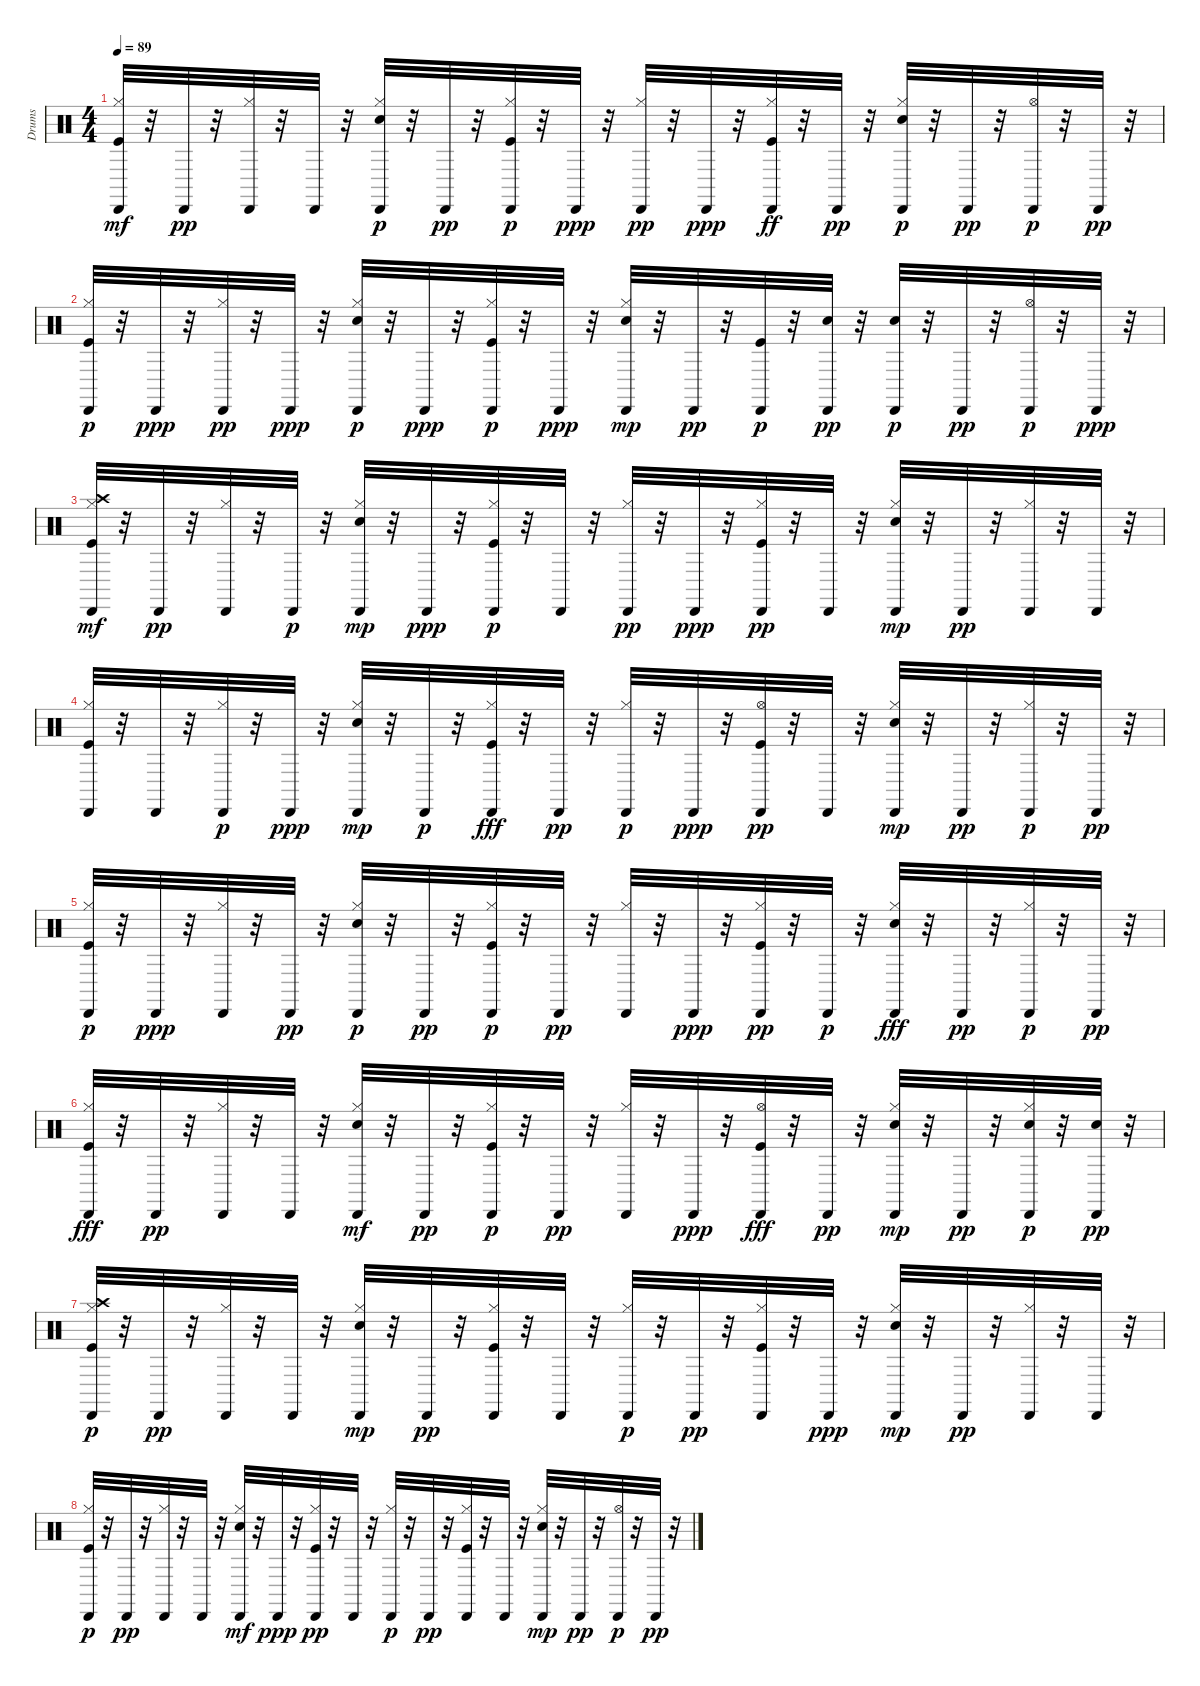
\track ("Drums" "Drums") {instrument percussion}
\staff {score}
\articulation defaults
\ts (4 4)
\tempo 89
\clef neutral
\ks c
("Kick (hit)" "Cabasa (hit)" "Hi-Hat (closed)").32{dy mf} r.32 "Cabasa (hit)".32{dy pp} r.32 ("Hi-Hat (closed)" "Cabasa (hit)").32 r.32 "Cabasa (hit)".32 r.32 ("Electric Snare (hit)" "Hi-Hat (closed)" "Cabasa (hit)").32{dy p} r.32 "Cabasa (hit)".32{dy pp} r.32 ("Kick (hit)" "Hi-Hat (closed)" "Cabasa (hit)").32{dy p} r.32 "Cabasa (hit)".32{dy ppp} r.32 ("Hi-Hat (closed)" "Cabasa (hit)").32{dy pp} r.32 "Cabasa (hit)".32{dy ppp} r.32 ("Cabasa (hit)" "Hi-Hat (closed)" "Kick (hit)").32{dy ff} r.32 "Cabasa (hit)".32{dy pp} r.32 ("Electric Snare (hit)" "Hi-Hat (closed)" "Cabasa (hit)").32{dy p} r.32 "Cabasa (hit)".32{dy pp} r.32 ("Hi-Hat (open)" "Cabasa (hit)").32{dy p} r.32 "Cabasa (hit)".32{dy pp} r.32 |
("Kick (hit)" "Hi-Hat (closed)" "Cabasa (hit)").32{dy p} r.32 "Cabasa (hit)".32{dy ppp} r.32 ("Hi-Hat (closed)" "Cabasa (hit)").32{dy pp} r.32 "Cabasa (hit)".32{dy ppp} r.32 ("Hi-Hat (closed)" "Electric Snare (hit)" "Cabasa (hit)").32{dy p} r.32 "Cabasa (hit)".32{dy ppp} r.32 ("Kick (hit)" "Hi-Hat (closed)" "Cabasa (hit)").32{dy p} r.32 "Cabasa (hit)".32{dy ppp} r.32 ("Electric Snare (hit)" "Cabasa (hit)" "Hi-Hat (closed)").32{dy mp} r.32 "Cabasa (hit)".32{dy pp} r.32 ("Kick (hit)" "Cabasa (hit)").32{dy p} r.32 ("Electric Snare (hit)" "Cabasa (hit)").32{dy pp} r.32 ("Electric Snare (hit)" "Cabasa (hit)").32{dy p} r.32 "Cabasa (hit)".32{dy pp} r.32 ("Hi-Hat (open)" "Cabasa (hit)").32{dy p} r.32 "Cabasa (hit)".32{dy ppp} r.32 |
("Hi-Hat (closed)" "Cabasa (hit)" "Kick (hit)" "Crash high (hit)").32{dy mf} r.32 "Cabasa (hit)".32{dy pp} r.32 ("Hi-Hat (closed)" "Cabasa (hit)").32 r.32 "Cabasa (hit)".32{dy p} r.32 ("Electric Snare (hit)" "Hi-Hat (closed)" "Cabasa (hit)").32{dy mp} r.32 "Cabasa (hit)".32{dy ppp} r.32 ("Hi-Hat (closed)" "Kick (hit)" "Cabasa (hit)").32{dy p} r.32 "Cabasa (hit)".32 r.32 ("Hi-Hat (closed)" "Cabasa (hit)").32{dy pp} r.32 "Cabasa (hit)".32{dy ppp} r.32 ("Kick (hit)" "Hi-Hat (closed)" "Cabasa (hit)").32{dy pp} r.32 "Cabasa (hit)".32 r.32 ("Electric Snare (hit)" "Hi-Hat (closed)" "Cabasa (hit)").32{dy mp} r.32 "Cabasa (hit)".32{dy pp} r.32 ("Hi-Hat (closed)" "Cabasa (hit)").32 r.32 "Cabasa (hit)".32 r.32 |
("Kick (hit)" "Hi-Hat (closed)" "Cabasa (hit)").32 r.32 "Cabasa (hit)".32 r.32 ("Hi-Hat (closed)" "Cabasa (hit)").32{dy p} r.32 "Cabasa (hit)".32{dy ppp} r.32 ("Electric Snare (hit)" "Hi-Hat (closed)" "Cabasa (hit)").32{dy mp} r.32 "Cabasa (hit)".32{dy p} r.32 ("Hi-Hat (closed)" "Cabasa (hit)" "Kick (hit)").32{dy fff} r.32 "Cabasa (hit)".32{dy pp} r.32 ("Hi-Hat (closed)" "Cabasa (hit)").32{dy p} r.32 "Cabasa (hit)".32{dy ppp} r.32 ("Hi-Hat (open)" "Kick (hit)" "Cabasa (hit)").32{dy pp} r.32 "Cabasa (hit)".32 r.32 ("Hi-Hat (closed)" "Electric Snare (hit)" "Cabasa (hit)").32{dy mp} r.32 "Cabasa (hit)".32{dy pp} r.32 ("Hi-Hat (closed)" "Cabasa (hit)").32{dy p} r.32 "Cabasa (hit)".32{dy pp} r.32 |
("Hi-Hat (closed)" "Kick (hit)" "Cabasa (hit)").32{dy p} r.32 "Cabasa (hit)".32{dy ppp} r.32 ("Hi-Hat (closed)" "Cabasa (hit)").32 r.32 "Cabasa (hit)".32{dy pp} r.32 ("Electric Snare (hit)" "Hi-Hat (closed)" "Cabasa (hit)").32{dy p} r.32 "Cabasa (hit)".32{dy pp} r.32 ("Hi-Hat (closed)" "Kick (hit)" "Cabasa (hit)").32{dy p} r.32 "Cabasa (hit)".32{dy pp} r.32 ("Hi-Hat (closed)" "Cabasa (hit)").32 r.32 "Cabasa (hit)".32{dy ppp} r.32 ("Hi-Hat (closed)" "Kick (hit)" "Cabasa (hit)").32{dy pp} r.32 "Cabasa (hit)".32{dy p} r.32 ("Hi-Hat (closed)" "Cabasa (hit)" "Electric Snare (hit)").32{dy fff} r.32 "Cabasa (hit)".32{dy pp} r.32 ("Hi-Hat (closed)" "Cabasa (hit)").32{dy p} r.32 "Cabasa (hit)".32{dy pp} r.32 |
("Hi-Hat (closed)" "Cabasa (hit)" "Kick (hit)").32{dy fff} r.32 "Cabasa (hit)".32{dy pp} r.32 ("Hi-Hat (closed)" "Cabasa (hit)").32 r.32 "Cabasa (hit)".32 r.32 ("Electric Snare (hit)" "Cabasa (hit)" "Hi-Hat (closed)").32{dy mf} r.32 "Cabasa (hit)".32{dy pp} r.32 ("Hi-Hat (closed)" "Kick (hit)" "Cabasa (hit)").32{dy p} r.32 "Cabasa (hit)".32{dy pp} r.32 ("Hi-Hat (closed)" "Cabasa (hit)").32 r.32 "Cabasa (hit)".32{dy ppp} r.32 ("Hi-Hat (open)" "Cabasa (hit)" "Kick (hit)").32{dy fff} r.32 "Cabasa (hit)".32{dy pp} r.32 ("Electric Snare (hit)" "Hi-Hat (closed)" "Cabasa (hit)").32{dy mp} r.32 "Cabasa (hit)".32{dy pp} r.32 ("Hi-Hat (closed)" "Electric Snare (hit)" "Cabasa (hit)").32{dy p} r.32 ("Electric Snare (hit)" "Cabasa (hit)").32{dy pp} r.32 |
("Hi-Hat (closed)" "Kick (hit)" "Crash high (hit)" "Cabasa (hit)").32{dy p} r.32 "Cabasa (hit)".32{dy pp} r.32 ("Hi-Hat (closed)" "Cabasa (hit)").32 r.32 "Cabasa (hit)".32 r.32 ("Hi-Hat (closed)" "Electric Snare (hit)" "Cabasa (hit)").32{dy mp} r.32 "Cabasa (hit)".32{dy pp} r.32 ("Kick (hit)" "Hi-Hat (closed)" "Cabasa (hit)").32 r.32 "Cabasa (hit)".32 r.32 ("Hi-Hat (closed)" "Cabasa (hit)").32{dy p} r.32 "Cabasa (hit)".32{dy pp} r.32 ("Kick (hit)" "Hi-Hat (closed)" "Cabasa (hit)").32 r.32 "Cabasa (hit)".32{dy ppp} r.32 ("Electric Snare (hit)" "Hi-Hat (closed)" "Cabasa (hit)").32{dy mp} r.32 "Cabasa (hit)".32{dy pp} r.32 ("Hi-Hat (closed)" "Cabasa (hit)").32 r.32 "Cabasa (hit)".32 r.32 |
("Kick (hit)" "Hi-Hat (closed)" "Cabasa (hit)").32{dy p} r.32 "Cabasa (hit)".32{dy pp} r.32 ("Hi-Hat (closed)" "Cabasa (hit)").32 r.32 "Cabasa (hit)".32 r.32 ("Electric Snare (hit)" "Cabasa (hit)" "Hi-Hat (closed)").32{dy mf} r.32 "Cabasa (hit)".32{dy ppp} r.32 ("Hi-Hat (closed)" "Kick (hit)" "Cabasa (hit)").32{dy pp} r.32 "Cabasa (hit)".32 r.32 ("Hi-Hat (closed)" "Cabasa (hit)").32{dy p} r.32 "Cabasa (hit)".32{dy pp} r.32 ("Hi-Hat (closed)" "Kick (hit)" "Cabasa (hit)").32 r.32 "Cabasa (hit)".32 r.32 ("Electric Snare (hit)" "Hi-Hat (closed)" "Cabasa (hit)").32{dy mp} r.32 "Cabasa (hit)".32{dy pp} r.32 ("Hi-Hat (open)" "Cabasa (hit)").32{dy p} r.32 "Cabasa (hit)".32{dy pp} r.32
